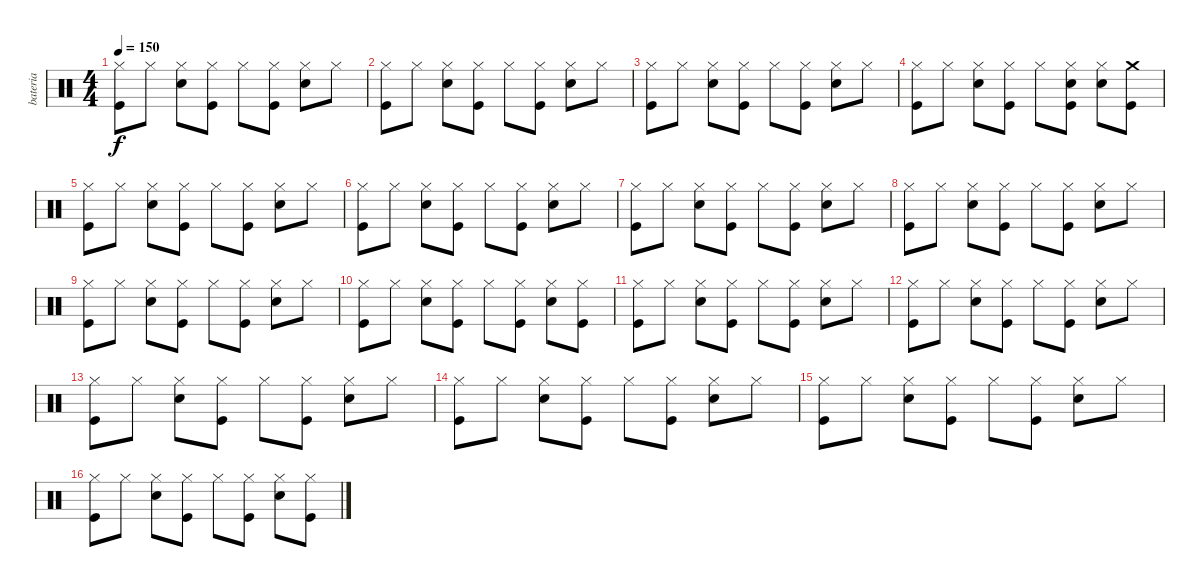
\track ("bateria" "bateria") {instrument percussion}
\staff {score}
\articulation defaults
\ts (4 4)
\tempo 150
\clef neutral
\ks c
("Hi-Hat (closed)" "Kick (hit)").8{dy f} "Hi-Hat (closed)".8 ("Hi-Hat (closed)" "Electric Snare (hit)").8 ("Hi-Hat (closed)" "Kick (hit)").8 "Hi-Hat (closed)".8 ("Hi-Hat (closed)" "Kick (hit)").8 ("Hi-Hat (closed)" "Electric Snare (hit)").8 "Hi-Hat (closed)".8 |
("Hi-Hat (closed)" "Kick (hit)").8 "Hi-Hat (closed)".8 ("Hi-Hat (closed)" "Electric Snare (hit)").8 ("Hi-Hat (closed)" "Kick (hit)").8 "Hi-Hat (closed)".8 ("Hi-Hat (closed)" "Kick (hit)").8 ("Hi-Hat (closed)" "Electric Snare (hit)").8 "Hi-Hat (closed)".8 |
("Hi-Hat (closed)" "Kick (hit)").8 "Hi-Hat (closed)".8 ("Hi-Hat (closed)" "Electric Snare (hit)").8 ("Hi-Hat (closed)" "Kick (hit)").8 "Hi-Hat (closed)".8 ("Hi-Hat (closed)" "Kick (hit)").8 ("Hi-Hat (closed)" "Electric Snare (hit)").8 "Hi-Hat (closed)".8 |
("Hi-Hat (closed)" "Kick (hit)").8 "Hi-Hat (closed)".8 ("Hi-Hat (closed)" "Electric Snare (hit)").8 ("Hi-Hat (closed)" "Kick (hit)").8 "Hi-Hat (closed)".8 ("Hi-Hat (closed)" "Electric Snare (hit)" "Kick (hit)").8 ("Hi-Hat (closed)" "Electric Snare (hit)").8 ("Crash medium (hit)" "Kick (hit)").8 |
("Hi-Hat (closed)" "Kick (hit)").8 "Hi-Hat (closed)".8 ("Hi-Hat (closed)" "Electric Snare (hit)").8 ("Hi-Hat (closed)" "Kick (hit)").8 "Hi-Hat (closed)".8 ("Hi-Hat (closed)" "Kick (hit)").8 ("Hi-Hat (closed)" "Electric Snare (hit)").8 "Hi-Hat (closed)".8 |
("Hi-Hat (closed)" "Kick (hit)").8 "Hi-Hat (closed)".8 ("Hi-Hat (closed)" "Electric Snare (hit)").8 ("Hi-Hat (closed)" "Kick (hit)").8 "Hi-Hat (closed)".8 ("Hi-Hat (closed)" "Kick (hit)").8 ("Hi-Hat (closed)" "Electric Snare (hit)").8 "Hi-Hat (closed)".8 |
("Hi-Hat (closed)" "Kick (hit)").8 "Hi-Hat (closed)".8 ("Hi-Hat (closed)" "Electric Snare (hit)").8 ("Hi-Hat (closed)" "Kick (hit)").8 "Hi-Hat (closed)".8 ("Hi-Hat (closed)" "Kick (hit)").8 ("Hi-Hat (closed)" "Electric Snare (hit)").8 "Hi-Hat (closed)".8 |
("Hi-Hat (closed)" "Kick (hit)").8 "Hi-Hat (closed)".8 ("Hi-Hat (closed)" "Electric Snare (hit)").8 ("Hi-Hat (closed)" "Kick (hit)").8 "Hi-Hat (closed)".8 ("Hi-Hat (closed)" "Kick (hit)").8 ("Hi-Hat (closed)" "Electric Snare (hit)").8 "Hi-Hat (closed)".8 |
("Hi-Hat (closed)" "Kick (hit)").8 "Hi-Hat (closed)".8 ("Hi-Hat (closed)" "Electric Snare (hit)").8 ("Hi-Hat (closed)" "Kick (hit)").8 "Hi-Hat (closed)".8 ("Hi-Hat (closed)" "Kick (hit)").8 ("Hi-Hat (closed)" "Electric Snare (hit)").8 "Hi-Hat (closed)".8 |
("Hi-Hat (closed)" "Kick (hit)").8 "Hi-Hat (closed)".8 ("Hi-Hat (closed)" "Electric Snare (hit)").8 ("Hi-Hat (closed)" "Kick (hit)").8 "Hi-Hat (closed)".8 ("Hi-Hat (closed)" "Kick (hit)").8 ("Hi-Hat (closed)" "Electric Snare (hit)").8 ("Hi-Hat (closed)" "Kick (hit)").8 |
("Hi-Hat (closed)" "Kick (hit)").8 "Hi-Hat (closed)".8 ("Hi-Hat (closed)" "Electric Snare (hit)").8 ("Hi-Hat (closed)" "Kick (hit)").8 "Hi-Hat (closed)".8 ("Hi-Hat (closed)" "Kick (hit)").8 ("Hi-Hat (closed)" "Electric Snare (hit)").8 "Hi-Hat (closed)".8 |
("Hi-Hat (closed)" "Kick (hit)").8 "Hi-Hat (closed)".8 ("Hi-Hat (closed)" "Electric Snare (hit)").8 ("Hi-Hat (closed)" "Kick (hit)").8 "Hi-Hat (closed)".8 ("Hi-Hat (closed)" "Kick (hit)").8 ("Hi-Hat (closed)" "Electric Snare (hit)").8 "Hi-Hat (closed)".8 |
("Hi-Hat (closed)" "Kick (hit)").8 "Hi-Hat (closed)".8 ("Hi-Hat (closed)" "Electric Snare (hit)").8 ("Hi-Hat (closed)" "Kick (hit)").8 "Hi-Hat (closed)".8 ("Hi-Hat (closed)" "Kick (hit)").8 ("Hi-Hat (closed)" "Electric Snare (hit)").8 "Hi-Hat (closed)".8 |
("Hi-Hat (closed)" "Kick (hit)").8 "Hi-Hat (closed)".8 ("Hi-Hat (closed)" "Electric Snare (hit)").8 ("Hi-Hat (closed)" "Kick (hit)").8 "Hi-Hat (closed)".8 ("Hi-Hat (closed)" "Kick (hit)").8 ("Hi-Hat (closed)" "Electric Snare (hit)").8 "Hi-Hat (closed)".8 |
("Hi-Hat (closed)" "Kick (hit)").8 "Hi-Hat (closed)".8 ("Hi-Hat (closed)" "Electric Snare (hit)").8 ("Hi-Hat (closed)" "Kick (hit)").8 "Hi-Hat (closed)".8 ("Hi-Hat (closed)" "Kick (hit)").8 ("Hi-Hat (closed)" "Electric Snare (hit)").8 "Hi-Hat (closed)".8 |
("Hi-Hat (closed)" "Kick (hit)").8 "Hi-Hat (closed)".8 ("Hi-Hat (closed)" "Electric Snare (hit)").8 ("Hi-Hat (closed)" "Kick (hit)").8 "Hi-Hat (closed)".8 ("Hi-Hat (closed)" "Kick (hit)").8 ("Hi-Hat (closed)" "Electric Snare (hit)").8 ("Hi-Hat (closed)" "Kick (hit)").8
